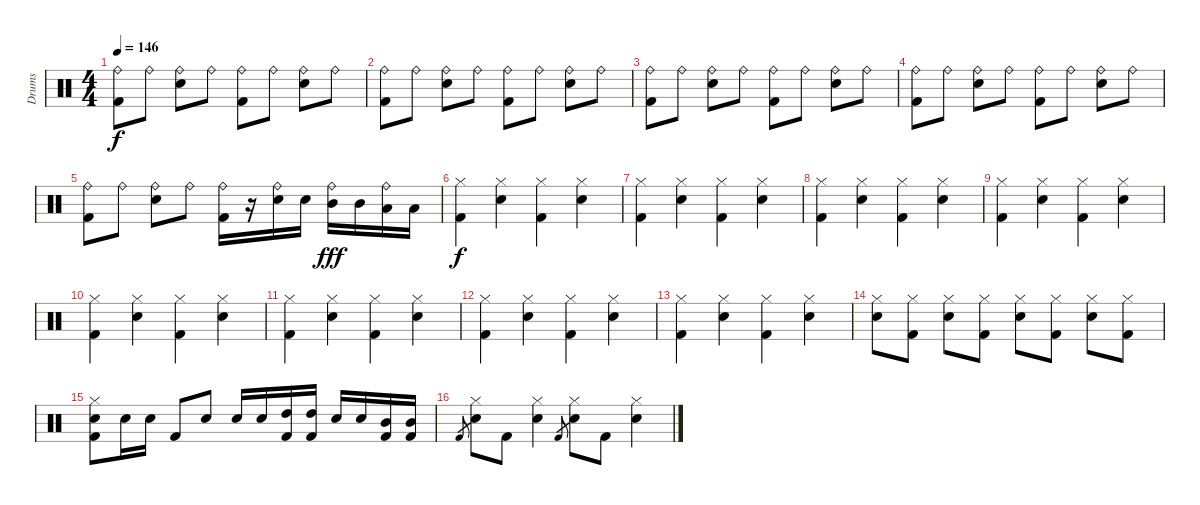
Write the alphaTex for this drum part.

\track ("Drums" "Drums") {instrument percussion}
\staff {score}
\articulation defaults
\ts (4 4)
\tempo 146
\clef neutral
\ks c
("Ride (bell)" "Kick (hit) 2").8{dy f} "Ride (bell)".8 ("Ride (bell)" "Snare (hit) 2").8 "Ride (bell)".8 ("Ride (bell)" "Kick (hit) 2").8 "Ride (bell)".8 ("Ride (bell)" "Snare (hit) 2").8 "Ride (bell)".8 |
("Ride (bell)" "Kick (hit) 2").8 "Ride (bell)".8 ("Ride (bell)" "Snare (hit) 2").8 "Ride (bell)".8 ("Ride (bell)" "Kick (hit) 2").8 "Ride (bell)".8 ("Ride (bell)" "Snare (hit) 2").8 "Ride (bell)".8 |
("Ride (bell)" "Kick (hit) 2").8 "Ride (bell)".8 ("Ride (bell)" "Snare (hit) 2").8 "Ride (bell)".8 ("Ride (bell)" "Kick (hit) 2").8 "Ride (bell)".8 ("Ride (bell)" "Snare (hit) 2").8 "Ride (bell)".8 |
("Ride (bell)" "Kick (hit) 2").8 "Ride (bell)".8 ("Ride (bell)" "Snare (hit) 2").8 "Ride (bell)".8 ("Ride (bell)" "Kick (hit) 2").8 "Ride (bell)".8 ("Ride (bell)" "Snare (hit) 2").8 "Ride (bell)".8 |
("Ride (bell)" "Kick (hit) 2").8 "Ride (bell)".8 ("Ride (bell)" "Snare (hit) 2").8 "Ride (bell)".8 ("Ride (bell)" "Kick (hit) 2").16 r.16 ("Ride (bell)" "Snare (hit) 2").16 "Snare (hit) 2".16 ("Ride (bell)" "Mid Tom (hit)").16{dy fff} "Mid Tom (hit)".16 ("Ride (bell)" "Low Tom (hit)").16 "Low Tom (hit)".16 |
("Hi-Hat (closed)" "Kick (hit) 2").4{dy f} ("Hi-Hat (closed)" "Snare (hit) 2").4 ("Hi-Hat (closed)" "Kick (hit) 2").4 ("Hi-Hat (closed)" "Snare (hit) 2").4 |
("Hi-Hat (closed)" "Kick (hit) 2").4 ("Hi-Hat (closed)" "Snare (hit) 2").4 ("Hi-Hat (closed)" "Kick (hit) 2").4 ("Hi-Hat (closed)" "Snare (hit) 2").4 |
("Hi-Hat (closed)" "Kick (hit) 2").4 ("Hi-Hat (closed)" "Snare (hit) 2").4 ("Hi-Hat (closed)" "Kick (hit) 2").4 ("Hi-Hat (closed)" "Snare (hit) 2").4 |
("Hi-Hat (closed)" "Kick (hit) 2").4 ("Hi-Hat (closed)" "Snare (hit) 2").4 ("Hi-Hat (closed)" "Kick (hit) 2").4 ("Hi-Hat (closed)" "Snare (hit) 2").4 |
("Hi-Hat (closed)" "Kick (hit) 2").4 ("Hi-Hat (closed)" "Snare (hit) 2").4 ("Hi-Hat (closed)" "Kick (hit) 2").4 ("Hi-Hat (closed)" "Snare (hit) 2").4 |
("Hi-Hat (closed)" "Kick (hit) 2").4 ("Hi-Hat (closed)" "Snare (hit) 2").4 ("Hi-Hat (closed)" "Kick (hit) 2").4 ("Hi-Hat (closed)" "Snare (hit) 2").4 |
("Hi-Hat (closed)" "Kick (hit) 2").4 ("Hi-Hat (closed)" "Snare (hit) 2").4 ("Hi-Hat (closed)" "Kick (hit) 2").4 ("Hi-Hat (closed)" "Snare (hit) 2").4 |
("Hi-Hat (closed)" "Kick (hit) 2").4 ("Hi-Hat (closed)" "Snare (hit) 2").4 ("Hi-Hat (closed)" "Kick (hit) 2").4 ("Hi-Hat (closed)" "Snare (hit) 2").4 |
("Hi-Hat (closed)" "Snare (hit) 2").8 ("Hi-Hat (closed)" "Kick (hit) 2").8 ("Hi-Hat (closed)" "Snare (hit) 2").8 ("Hi-Hat (closed)" "Kick (hit) 2").8 ("Hi-Hat (closed)" "Snare (hit) 2").8 ("Hi-Hat (closed)" "Kick (hit) 2").8 ("Hi-Hat (closed)" "Snare (hit) 2").8 ("Hi-Hat (closed)" "Kick (hit) 2").8 |
("Hi-Hat (closed)" "Snare (hit) 2" "Kick (hit) 2").8 "Snare (hit) 2".16 "Snare (hit) 2".16 "Kick (hit) 2".8 "Snare (hit) 2".8 "Snare (hit) 2".16 "Snare (hit) 2".16 ("High Tom (hit)" "Kick (hit) 2").16 ("High Tom (hit)" "Kick (hit) 2").16 "Snare (hit) 2".16 "Snare (hit) 2".16 ("Mid Tom (hit)" "Kick (hit) 2").16 ("Mid Tom (hit)" "Kick (hit) 2").16 |
"Kick (hit) 2".8{gr} ("Hi-Hat (closed)" "Snare (hit) 2").8 "Kick (hit) 2".8 ("Hi-Hat (closed)" "Snare (hit) 2").4 "Kick (hit) 2".8{gr} ("Hi-Hat (closed)" "Snare (hit) 2").8 "Kick (hit) 2".8 ("Hi-Hat (closed)" "Snare (hit) 2").4
